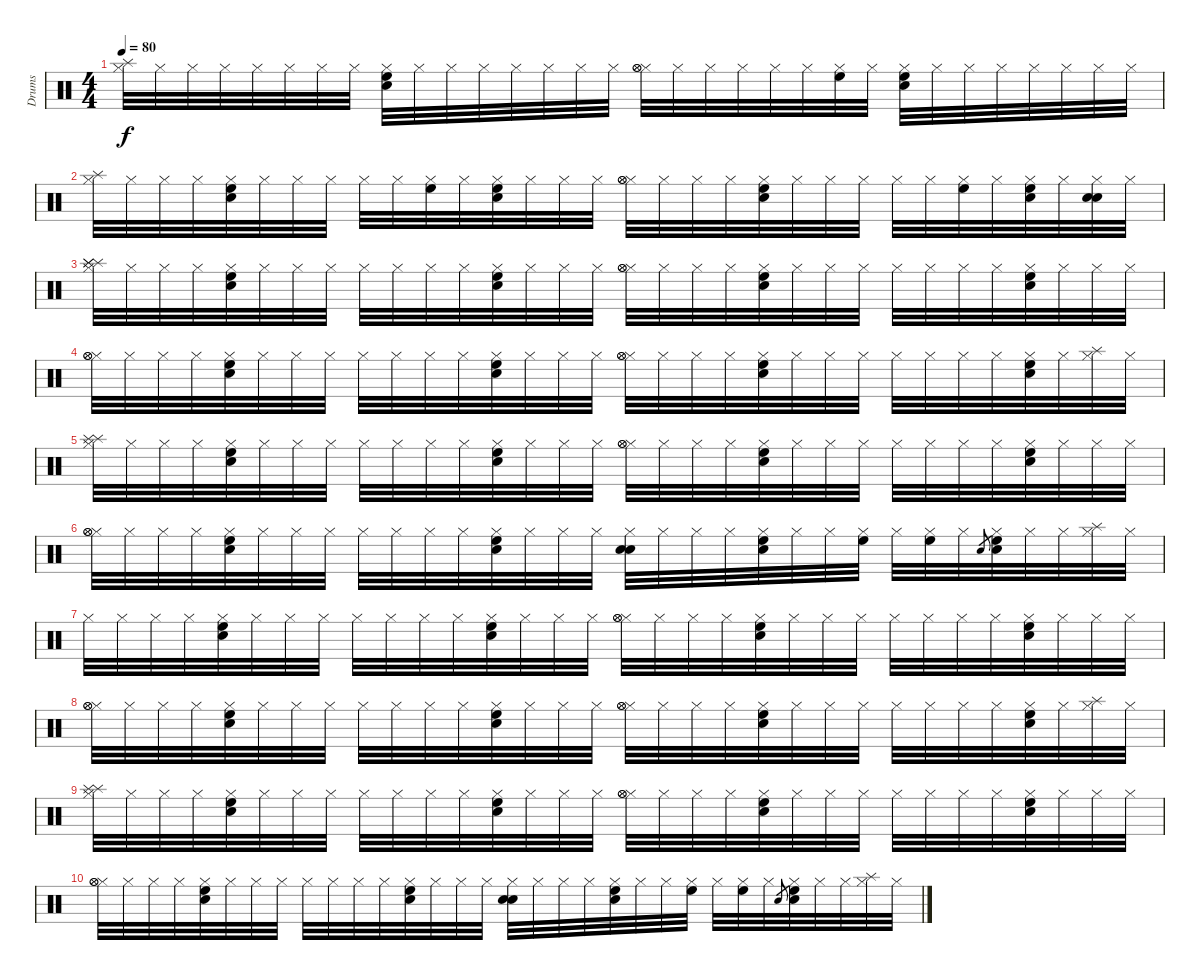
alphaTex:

\track ("Drums" "Drums") {instrument percussion}
\staff {score}
\articulation defaults
\ts (4 4)
\tempo 80
\clef neutral
\ks c
("Hi-Hat (closed)" "Splash (hit)").32{dy f} "Hi-Hat (closed)".32 "Hi-Hat (closed)".32 "Hi-Hat (closed)".32 "Hi-Hat (closed)".32 "Hi-Hat (closed)".32 "Hi-Hat (closed)".32 "Hi-Hat (closed)".32 ("Hi-Hat (closed)" "Snare (hit) 2" "High Floor Tom (hit)").32 "Hi-Hat (closed)".32 "Hi-Hat (closed)".32 "Hi-Hat (closed)".32 "Hi-Hat (closed)".32 "Hi-Hat (closed)".32 "Hi-Hat (closed)".32 "Hi-Hat (closed)".32 ("Hi-Hat (closed)" "Hi-Hat (open)" "Hi-Hat (open)").32 "Hi-Hat (closed)".32 "Hi-Hat (closed)".32 "Hi-Hat (closed)".32 "Hi-Hat (closed)".32 "Hi-Hat (closed)".32 ("Hi-Hat (closed)" "High Floor Tom (hit)").32 "Hi-Hat (closed)".32 ("Hi-Hat (closed)" "Snare (hit) 2" "High Floor Tom (hit)").32 "Hi-Hat (closed)".32 "Hi-Hat (closed)".32 "Hi-Hat (closed)".32 "Hi-Hat (closed)".32 "Hi-Hat (closed)".32 "Hi-Hat (closed)".32 "Hi-Hat (closed)".32 |
("Hi-Hat (closed)" "Splash (hit)").32 "Hi-Hat (closed)".32 "Hi-Hat (closed)".32 "Hi-Hat (closed)".32 ("Hi-Hat (closed)" "Snare (hit) 2" "High Floor Tom (hit)").32 "Hi-Hat (closed)".32 "Hi-Hat (closed)".32 "Hi-Hat (closed)".32 "Hi-Hat (closed)".32 "Hi-Hat (closed)".32 ("Hi-Hat (closed)" "High Floor Tom (hit)").32 "Hi-Hat (closed)".32 ("Hi-Hat (closed)" "Snare (hit) 2" "High Floor Tom (hit)").32 "Hi-Hat (closed)".32 "Hi-Hat (closed)".32 "Hi-Hat (closed)".32 ("Hi-Hat (closed)" "Hi-Hat (open)" "Hi-Hat (open)").32 "Hi-Hat (closed)".32 "Hi-Hat (closed)".32 "Hi-Hat (closed)".32 ("Hi-Hat (closed)" "Snare (hit) 2" "High Floor Tom (hit)").32 "Hi-Hat (closed)".32 "Hi-Hat (closed)".32 "Hi-Hat (closed)".32 "Hi-Hat (closed)".32 "Hi-Hat (closed)".32 ("Hi-Hat (closed)" "High Floor Tom (hit)").32 "Hi-Hat (closed)".32 ("Hi-Hat (closed)" "Snare (hit) 2" "High Floor Tom (hit)").32 "Hi-Hat (closed)".32 ("Hi-Hat (closed)" "Snare (hit) 2" "Snare (hit) 2").32 "Hi-Hat (closed)".32 |
("Hi-Hat (closed)" "Splash (hit)" "Splash (hit)" "Splash (hit)").32 "Hi-Hat (closed)".32 "Hi-Hat (closed)".32 "Hi-Hat (closed)".32 ("Hi-Hat (closed)" "Snare (hit) 2" "High Floor Tom (hit)").32 "Hi-Hat (closed)".32 "Hi-Hat (closed)".32 "Hi-Hat (closed)".32 "Hi-Hat (closed)".32 "Hi-Hat (closed)".32 "Hi-Hat (closed)".32 "Hi-Hat (closed)".32 ("Hi-Hat (closed)" "Snare (hit) 2" "High Floor Tom (hit)").32 "Hi-Hat (closed)".32 "Hi-Hat (closed)".32 "Hi-Hat (closed)".32 ("Hi-Hat (closed)" "Hi-Hat (open)" "Hi-Hat (open)").32 "Hi-Hat (closed)".32 "Hi-Hat (closed)".32 "Hi-Hat (closed)".32 ("Hi-Hat (closed)" "Snare (hit) 2" "High Floor Tom (hit)").32 "Hi-Hat (closed)".32 "Hi-Hat (closed)".32 "Hi-Hat (closed)".32 "Hi-Hat (closed)".32 "Hi-Hat (closed)".32 "Hi-Hat (closed)".32 "Hi-Hat (closed)".32 ("Hi-Hat (closed)" "Snare (hit) 2" "High Floor Tom (hit)").32 "Hi-Hat (closed)".32 "Hi-Hat (closed)".32 "Hi-Hat (closed)".32 |
("Hi-Hat (closed)" "Hi-Hat (open)" "Hi-Hat (open)").32 "Hi-Hat (closed)".32 "Hi-Hat (closed)".32 "Hi-Hat (closed)".32 ("Hi-Hat (closed)" "Snare (hit) 2" "High Floor Tom (hit)").32 "Hi-Hat (closed)".32 "Hi-Hat (closed)".32 "Hi-Hat (closed)".32 "Hi-Hat (closed)".32 "Hi-Hat (closed)".32 "Hi-Hat (closed)".32 "Hi-Hat (closed)".32 ("Hi-Hat (closed)" "Snare (hit) 2" "High Floor Tom (hit)").32 "Hi-Hat (closed)".32 "Hi-Hat (closed)".32 "Hi-Hat (closed)".32 ("Hi-Hat (closed)" "Hi-Hat (open)" "Hi-Hat (open)").32 "Hi-Hat (closed)".32 "Hi-Hat (closed)".32 "Hi-Hat (closed)".32 ("Hi-Hat (closed)" "Snare (hit) 2" "High Floor Tom (hit)").32 "Hi-Hat (closed)".32 "Hi-Hat (closed)".32 "Hi-Hat (closed)".32 "Hi-Hat (closed)".32 "Hi-Hat (closed)".32 "Hi-Hat (closed)".32 "Hi-Hat (closed)".32 ("Hi-Hat (closed)" "Snare (hit) 2" "High Floor Tom (hit)").32 "Hi-Hat (closed)".32 ("Hi-Hat (closed)" "Splash (hit)").32 "Hi-Hat (closed)".32 |
("Hi-Hat (closed)" "Splash (hit)" "Splash (hit)").32{volume 8} "Hi-Hat (closed)".32 "Hi-Hat (closed)".32 "Hi-Hat (closed)".32 ("Hi-Hat (closed)" "Snare (hit) 2" "High Floor Tom (hit)").32 "Hi-Hat (closed)".32 "Hi-Hat (closed)".32 "Hi-Hat (closed)".32 "Hi-Hat (closed)".32 "Hi-Hat (closed)".32 "Hi-Hat (closed)".32 "Hi-Hat (closed)".32 ("Hi-Hat (closed)" "Snare (hit) 2" "High Floor Tom (hit)").32 "Hi-Hat (closed)".32 "Hi-Hat (closed)".32 "Hi-Hat (closed)".32 ("Hi-Hat (closed)" "Hi-Hat (open)" "Hi-Hat (open)").32 "Hi-Hat (closed)".32 "Hi-Hat (closed)".32 "Hi-Hat (closed)".32 ("Hi-Hat (closed)" "Snare (hit) 2" "High Floor Tom (hit)").32 "Hi-Hat (closed)".32 "Hi-Hat (closed)".32 "Hi-Hat (closed)".32 "Hi-Hat (closed)".32 "Hi-Hat (closed)".32 "Hi-Hat (closed)".32 "Hi-Hat (closed)".32 ("Hi-Hat (closed)" "Snare (hit) 2" "High Floor Tom (hit)").32 "Hi-Hat (closed)".32 "Hi-Hat (closed)".32 "Hi-Hat (closed)".32 |
("Hi-Hat (closed)" "Hi-Hat (open)" "Hi-Hat (open)").32{volume 6} "Hi-Hat (closed)".32 "Hi-Hat (closed)".32 "Hi-Hat (closed)".32 ("Hi-Hat (closed)" "Snare (hit) 2" "High Floor Tom (hit)").32 "Hi-Hat (closed)".32 "Hi-Hat (closed)".32 "Hi-Hat (closed)".32 "Hi-Hat (closed)".32 "Hi-Hat (closed)".32 "Hi-Hat (closed)".32 "Hi-Hat (closed)".32 ("Hi-Hat (closed)" "Snare (hit) 2" "High Floor Tom (hit)").32 "Hi-Hat (closed)".32 "Hi-Hat (closed)".32 "Hi-Hat (closed)".32 ("Hi-Hat (closed)" "Snare (hit) 2" "Snare (hit) 2").32 "Hi-Hat (closed)".32 "Hi-Hat (closed)".32 "Hi-Hat (closed)".32 ("Hi-Hat (closed)" "Snare (hit) 2" "High Floor Tom (hit)").32 "Hi-Hat (closed)".32 "Hi-Hat (closed)".32 ("Hi-Hat (closed)" "High Floor Tom (hit)").32 "Hi-Hat (closed)".32 ("Hi-Hat (closed)" "High Floor Tom (hit)").32 "Hi-Hat (closed)".32 "Snare (hit) 2".8{gr} ("Hi-Hat (closed)" "Snare (hit) 2" "High Floor Tom (hit)").32 "Hi-Hat (closed)".32 "Hi-Hat (closed)".32 ("Hi-Hat (closed)" "Splash (hit)").32 "Hi-Hat (closed)".32 |
"Hi-Hat (closed)".32{volume 4} "Hi-Hat (closed)".32 "Hi-Hat (closed)".32 "Hi-Hat (closed)".32 ("Hi-Hat (closed)" "Snare (hit) 2" "High Floor Tom (hit)").32 "Hi-Hat (closed)".32 "Hi-Hat (closed)".32 "Hi-Hat (closed)".32 "Hi-Hat (closed)".32 "Hi-Hat (closed)".32 "Hi-Hat (closed)".32 "Hi-Hat (closed)".32 ("Hi-Hat (closed)" "Snare (hit) 2" "High Floor Tom (hit)").32 "Hi-Hat (closed)".32 "Hi-Hat (closed)".32 "Hi-Hat (closed)".32 ("Hi-Hat (closed)" "Hi-Hat (open)" "Hi-Hat (open)").32 "Hi-Hat (closed)".32 "Hi-Hat (closed)".32 "Hi-Hat (closed)".32 ("Hi-Hat (closed)" "Snare (hit) 2" "High Floor Tom (hit)").32 "Hi-Hat (closed)".32 "Hi-Hat (closed)".32 "Hi-Hat (closed)".32 "Hi-Hat (closed)".32 "Hi-Hat (closed)".32 "Hi-Hat (closed)".32 "Hi-Hat (closed)".32 ("Hi-Hat (closed)" "Snare (hit) 2" "High Floor Tom (hit)").32 "Hi-Hat (closed)".32 "Hi-Hat (closed)".32 "Hi-Hat (closed)".32 |
("Hi-Hat (closed)" "Hi-Hat (open)" "Hi-Hat (open)").32{volume 2} "Hi-Hat (closed)".32 "Hi-Hat (closed)".32 "Hi-Hat (closed)".32 ("Hi-Hat (closed)" "Snare (hit) 2" "High Floor Tom (hit)").32 "Hi-Hat (closed)".32 "Hi-Hat (closed)".32 "Hi-Hat (closed)".32 "Hi-Hat (closed)".32 "Hi-Hat (closed)".32 "Hi-Hat (closed)".32 "Hi-Hat (closed)".32 ("Hi-Hat (closed)" "Snare (hit) 2" "High Floor Tom (hit)").32 "Hi-Hat (closed)".32 "Hi-Hat (closed)".32 "Hi-Hat (closed)".32 ("Hi-Hat (closed)" "Hi-Hat (open)" "Hi-Hat (open)").32 "Hi-Hat (closed)".32 "Hi-Hat (closed)".32 "Hi-Hat (closed)".32 ("Hi-Hat (closed)" "Snare (hit) 2" "High Floor Tom (hit)").32 "Hi-Hat (closed)".32 "Hi-Hat (closed)".32 "Hi-Hat (closed)".32 "Hi-Hat (closed)".32 "Hi-Hat (closed)".32 "Hi-Hat (closed)".32 "Hi-Hat (closed)".32 ("Hi-Hat (closed)" "Snare (hit) 2" "High Floor Tom (hit)").32 "Hi-Hat (closed)".32 ("Hi-Hat (closed)" "Splash (hit)").32 "Hi-Hat (closed)".32 |
("Hi-Hat (closed)" "Splash (hit)" "Splash (hit)").32{volume 0} "Hi-Hat (closed)".32 "Hi-Hat (closed)".32 "Hi-Hat (closed)".32 ("Hi-Hat (closed)" "Snare (hit) 2" "High Floor Tom (hit)").32 "Hi-Hat (closed)".32 "Hi-Hat (closed)".32 "Hi-Hat (closed)".32 "Hi-Hat (closed)".32 "Hi-Hat (closed)".32 "Hi-Hat (closed)".32 "Hi-Hat (closed)".32 ("Hi-Hat (closed)" "Snare (hit) 2" "High Floor Tom (hit)").32 "Hi-Hat (closed)".32 "Hi-Hat (closed)".32 "Hi-Hat (closed)".32 ("Hi-Hat (closed)" "Hi-Hat (open)" "Hi-Hat (open)").32 "Hi-Hat (closed)".32 "Hi-Hat (closed)".32 "Hi-Hat (closed)".32 ("Hi-Hat (closed)" "Snare (hit) 2" "High Floor Tom (hit)").32 "Hi-Hat (closed)".32 "Hi-Hat (closed)".32 "Hi-Hat (closed)".32 "Hi-Hat (closed)".32 "Hi-Hat (closed)".32 "Hi-Hat (closed)".32 "Hi-Hat (closed)".32 ("Hi-Hat (closed)" "Snare (hit) 2" "High Floor Tom (hit)").32 "Hi-Hat (closed)".32 "Hi-Hat (closed)".32 "Hi-Hat (closed)".32 |
("Hi-Hat (closed)" "Hi-Hat (open)" "Hi-Hat (open)").32 "Hi-Hat (closed)".32 "Hi-Hat (closed)".32 "Hi-Hat (closed)".32 ("Hi-Hat (closed)" "Snare (hit) 2" "High Floor Tom (hit)").32 "Hi-Hat (closed)".32 "Hi-Hat (closed)".32 "Hi-Hat (closed)".32 "Hi-Hat (closed)".32 "Hi-Hat (closed)".32 "Hi-Hat (closed)".32 "Hi-Hat (closed)".32 ("Hi-Hat (closed)" "Snare (hit) 2" "High Floor Tom (hit)").32 "Hi-Hat (closed)".32 "Hi-Hat (closed)".32 "Hi-Hat (closed)".32 ("Hi-Hat (closed)" "Snare (hit) 2" "Snare (hit) 2").32 "Hi-Hat (closed)".32 "Hi-Hat (closed)".32 "Hi-Hat (closed)".32 ("Hi-Hat (closed)" "Snare (hit) 2" "High Floor Tom (hit)").32 "Hi-Hat (closed)".32 "Hi-Hat (closed)".32 ("Hi-Hat (closed)" "High Floor Tom (hit)").32 "Hi-Hat (closed)".32 ("Hi-Hat (closed)" "High Floor Tom (hit)").32 "Hi-Hat (closed)".32 "Snare (hit) 2".8{gr} ("Hi-Hat (closed)" "Snare (hit) 2" "High Floor Tom (hit)").32 "Hi-Hat (closed)".32 "Hi-Hat (closed)".32 ("Hi-Hat (closed)" "Splash (hit)").32 "Hi-Hat (closed)".32
